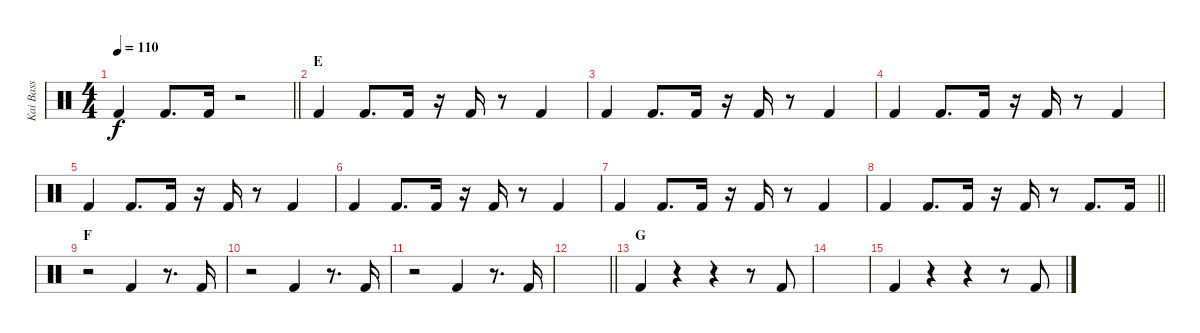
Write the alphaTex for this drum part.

\track ("Kai Bass" "Kai Bass") {instrument percussion}
\staff {score}
\articulation defaults
\ts (4 4)
\tempo 110
\clef neutral
\barLineRight lightlight
\ks c "Kick (hit) 2".4{dy f} "Kick (hit) 2".8{d} "Kick (hit) 2".16
r.2 |
\section ("" "E")
"Kick (hit) 2".4 "Kick (hit) 2".8{d} "Kick (hit) 2".16 r.16 "Kick (hit) 2".16 r.8 "Kick (hit) 2".4 |
"Kick (hit) 2".4 "Kick (hit) 2".8{d} "Kick (hit) 2".16 r.16 "Kick (hit) 2".16 r.8 "Kick (hit) 2".4 |
"Kick (hit) 2".4 "Kick (hit) 2".8{d} "Kick (hit) 2".16 r.16 "Kick (hit) 2".16 r.8 "Kick (hit) 2".4 |
"Kick (hit) 2".4 "Kick (hit) 2".8{d} "Kick (hit) 2".16 r.16 "Kick (hit) 2".16 r.8 "Kick (hit) 2".4 |
"Kick (hit) 2".4 "Kick (hit) 2".8{d} "Kick (hit) 2".16 r.16 "Kick (hit) 2".16 r.8 "Kick (hit) 2".4 |
"Kick (hit) 2".4 "Kick (hit) 2".8{d} "Kick (hit) 2".16 r.16 "Kick (hit) 2".16 r.8 "Kick (hit) 2".4 |
\barLineRight lightlight "Kick (hit) 2".4 "Kick (hit) 2".8{d} "Kick (hit) 2".16
r.16 "Kick (hit) 2".16 r.8 "Kick (hit) 2".8{d} "Kick (hit) 2".16 |
\section ("" "F")
r.2 "Kick (hit) 2".4 r.8{d} "Kick (hit) 2".16 |
r.2 "Kick (hit) 2".4 r.8{d} "Kick (hit) 2".16 |
r.2 "Kick (hit) 2".4 r.8{d} "Kick (hit) 2".16 |
\barLineRight lightlight
|
\section ("" "G")
"Kick (hit) 2".4 r.4 r.4 r.8 "Kick (hit) 2".8 |
|
"Kick (hit) 2".4 r.4 r.4 r.8 "Kick (hit) 2".8
